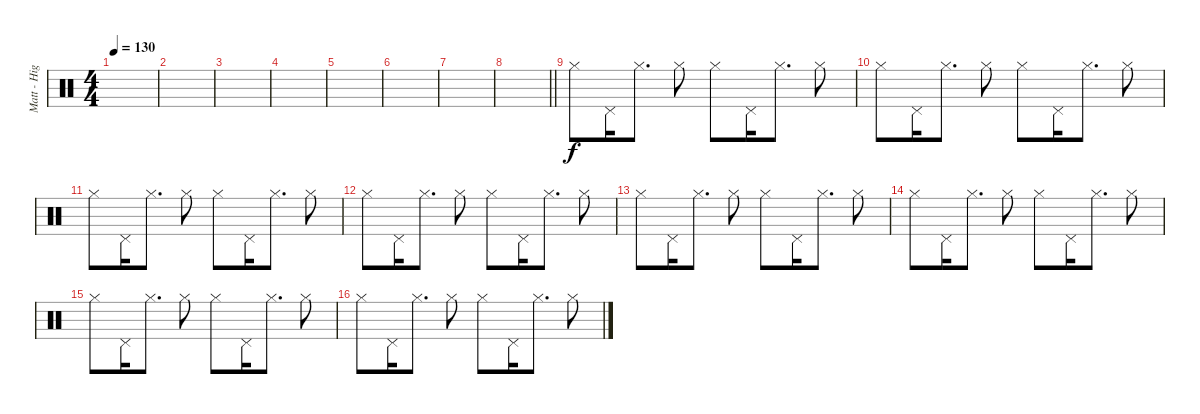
\track ("Matt - High Hat" "Matt - Hig") {instrument percussion}
\staff {score}
\articulation defaults
\ts (4 4)
\tempo 130
\clef neutral
\ks c
|
|
|
|
|
|
|
\barLineRight lightlight
|
"Hi-Hat (closed)".8 "Pedal Hi-Hat (hit)".16 "Hi-Hat (closed)".8{d} "Hi-Hat (closed)".8 "Hi-Hat (closed)".8 "Pedal Hi-Hat (hit)".16 "Hi-Hat (closed)".8{d} "Hi-Hat (closed)".8 |
"Hi-Hat (closed)".8 "Pedal Hi-Hat (hit)".16 "Hi-Hat (closed)".8{d} "Hi-Hat (closed)".8 "Hi-Hat (closed)".8 "Pedal Hi-Hat (hit)".16 "Hi-Hat (closed)".8{d} "Hi-Hat (closed)".8 |
"Hi-Hat (closed)".8 "Pedal Hi-Hat (hit)".16 "Hi-Hat (closed)".8{d} "Hi-Hat (closed)".8 "Hi-Hat (closed)".8 "Pedal Hi-Hat (hit)".16 "Hi-Hat (closed)".8{d} "Hi-Hat (closed)".8 |
"Hi-Hat (closed)".8 "Pedal Hi-Hat (hit)".16 "Hi-Hat (closed)".8{d} "Hi-Hat (closed)".8 "Hi-Hat (closed)".8 "Pedal Hi-Hat (hit)".16 "Hi-Hat (closed)".8{d} "Hi-Hat (closed)".8 |
"Hi-Hat (closed)".8 "Pedal Hi-Hat (hit)".16 "Hi-Hat (closed)".8{d} "Hi-Hat (closed)".8 "Hi-Hat (closed)".8 "Pedal Hi-Hat (hit)".16 "Hi-Hat (closed)".8{d} "Hi-Hat (closed)".8 |
"Hi-Hat (closed)".8 "Pedal Hi-Hat (hit)".16 "Hi-Hat (closed)".8{d} "Hi-Hat (closed)".8 "Hi-Hat (closed)".8 "Pedal Hi-Hat (hit)".16 "Hi-Hat (closed)".8{d} "Hi-Hat (closed)".8 |
"Hi-Hat (closed)".8 "Pedal Hi-Hat (hit)".16 "Hi-Hat (closed)".8{d} "Hi-Hat (closed)".8 "Hi-Hat (closed)".8 "Pedal Hi-Hat (hit)".16 "Hi-Hat (closed)".8{d} "Hi-Hat (closed)".8 |
"Hi-Hat (closed)".8 "Pedal Hi-Hat (hit)".16 "Hi-Hat (closed)".8{d} "Hi-Hat (closed)".8 "Hi-Hat (closed)".8 "Pedal Hi-Hat (hit)".16 "Hi-Hat (closed)".8{d} "Hi-Hat (closed)".8
